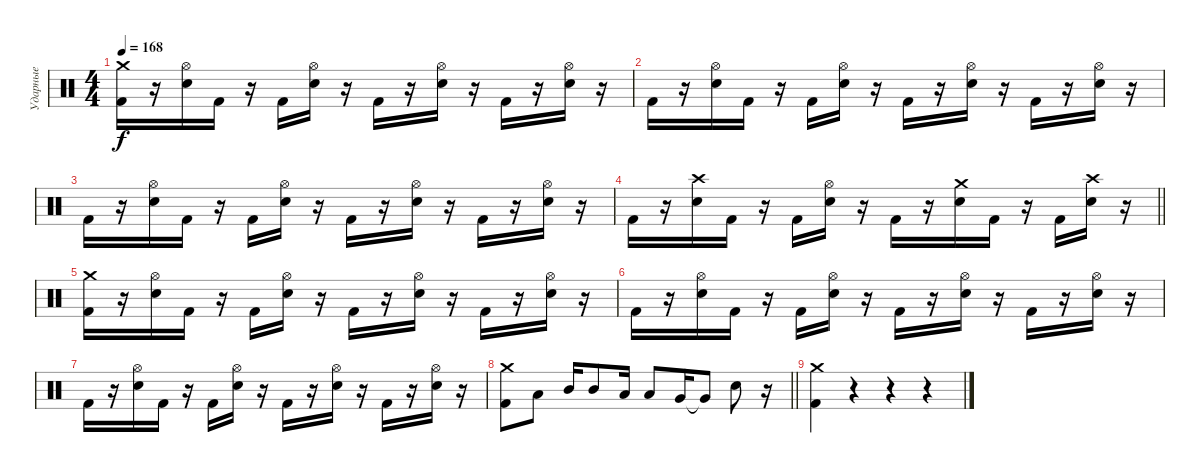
\track ("Ударные" "Ударные") {instrument percussion}
\staff {score}
\articulation defaults
\ts (4 4)
\tempo 168
\clef neutral
\ks c
("Crash medium (hit)" "Kick (hit) 2").16{dy f} r.16 ("Hi-Hat (open)" "Snare (hit) 2").16 "Kick (hit) 2".16 r.16 "Kick (hit) 2".16 ("Hi-Hat (open)" "Snare (hit) 2").16 r.16 "Kick (hit) 2".16 r.16 ("Hi-Hat (open)" "Snare (hit) 2").16 r.16 "Kick (hit) 2".16 r.16 ("Hi-Hat (open)" "Snare (hit) 2").16 r.16 |
"Kick (hit) 2".16 r.16 ("Hi-Hat (open)" "Snare (hit) 2").16 "Kick (hit) 2".16 r.16 "Kick (hit) 2".16 ("Hi-Hat (open)" "Snare (hit) 2").16 r.16 "Kick (hit) 2".16 r.16 ("Hi-Hat (open)" "Snare (hit) 2").16 r.16 "Kick (hit) 2".16 r.16 ("Hi-Hat (open)" "Snare (hit) 2").16 r.16 |
"Kick (hit) 2".16 r.16 ("Hi-Hat (open)" "Snare (hit) 2").16 "Kick (hit) 2".16 r.16 "Kick (hit) 2".16 ("Hi-Hat (open)" "Snare (hit) 2").16 r.16 "Kick (hit) 2".16 r.16 ("Hi-Hat (open)" "Snare (hit) 2").16 r.16 "Kick (hit) 2".16 r.16 ("Hi-Hat (open)" "Snare (hit) 2").16 r.16 |
\barLineRight lightlight "Kick (hit) 2".16
r.16 ("Crash high (hit)" "Snare (hit) 2").16 "Kick (hit) 2".16 r.16 "Kick (hit) 2".16 ("Hi-Hat (open)" "Snare (hit) 2").16 r.16 "Kick (hit) 2".16 r.16 ("Crash medium (hit)" "Snare (hit) 2").16 "Kick (hit) 2".16 r.16 "Kick (hit) 2".16 ("Crash high (hit)" "Snare (hit) 2").16 r.16 |
("Crash medium (hit)" "Kick (hit) 2").16 r.16 ("Hi-Hat (open)" "Snare (hit) 2").16 "Kick (hit) 2".16 r.16 "Kick (hit) 2".16 ("Hi-Hat (open)" "Snare (hit) 2").16 r.16 "Kick (hit) 2".16 r.16 ("Hi-Hat (open)" "Snare (hit) 2").16 r.16 "Kick (hit) 2".16 r.16 ("Hi-Hat (open)" "Snare (hit) 2").16 r.16 |
"Kick (hit) 2".16 r.16 ("Hi-Hat (open)" "Snare (hit) 2").16 "Kick (hit) 2".16 r.16 "Kick (hit) 2".16 ("Hi-Hat (open)" "Snare (hit) 2").16 r.16 "Kick (hit) 2".16 r.16 ("Hi-Hat (open)" "Snare (hit) 2").16 r.16 "Kick (hit) 2".16 r.16 ("Hi-Hat (open)" "Snare (hit) 2").16 r.16 |
"Kick (hit) 2".16 r.16 ("Hi-Hat (open)" "Snare (hit) 2").16 "Kick (hit) 2".16 r.16 "Kick (hit) 2".16 ("Hi-Hat (open)" "Snare (hit) 2").16 r.16 "Kick (hit) 2".16 r.16 ("Hi-Hat (open)" "Snare (hit) 2").16 r.16 "Kick (hit) 2".16 r.16 ("Hi-Hat (open)" "Snare (hit) 2").16 r.16 |
\barLineRight lightlight
("Crash medium (hit)" "Kick (hit) 2").8 "Low Tom (hit)".8 "Mid Tom (hit)".16 "Mid Tom (hit)".8 "Low Tom (hit)".16 "Low Tom (hit)".8 "Very Low Tom (hit)".16 "Very Low Tom (hit)"{t}.8 "Snare (hit) 2".8 r.16 |
("Crash medium (hit)" "Kick (hit) 2").4 r.4 r.4 r.4
